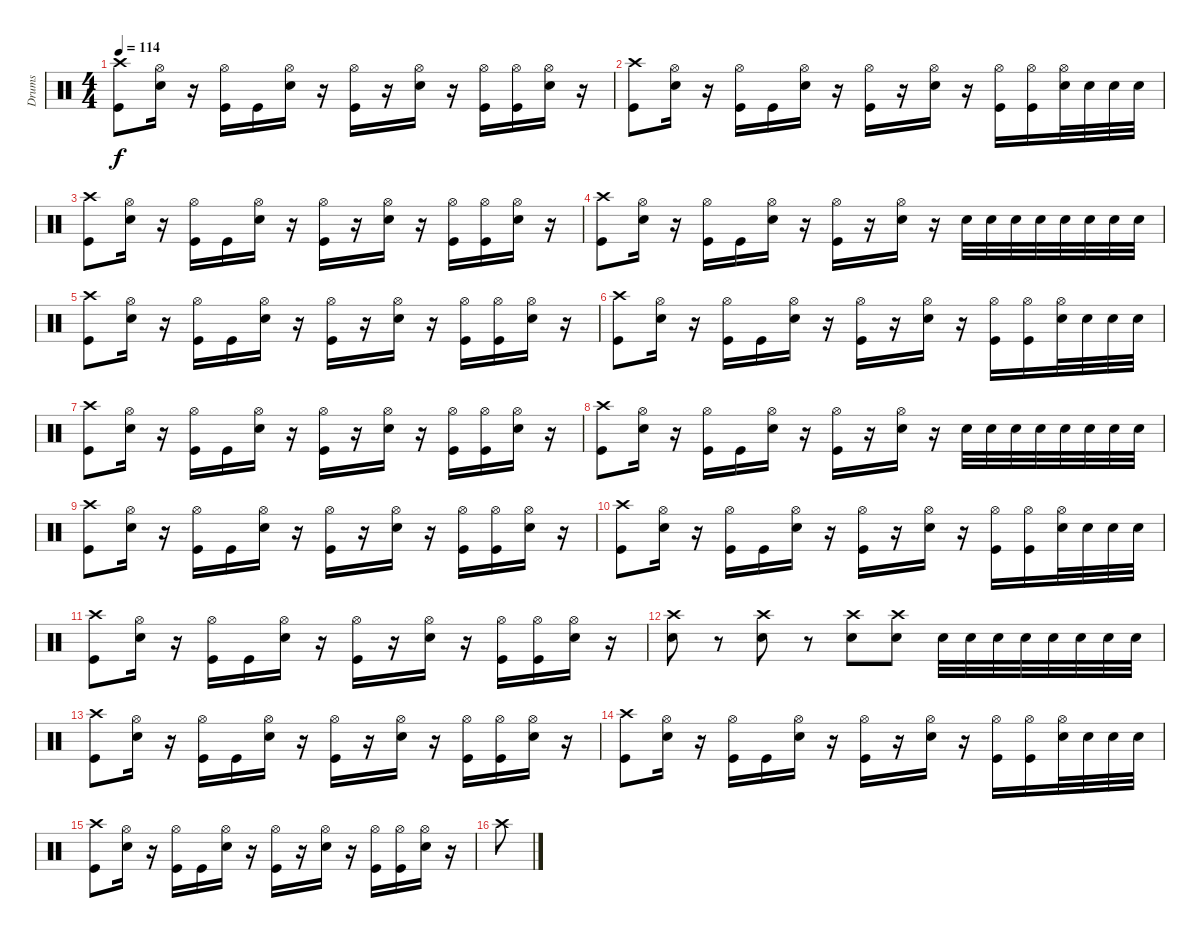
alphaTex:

\track ("Drums" "Drums") {instrument percussion}
\staff {score}
\articulation defaults
\ts (4 4)
\tempo 114
\clef neutral
\ks c
("Crash high (hit)" "Kick (hit)").8{dy f} ("Hi-Hat (open)" "Snare (hit) 2").16 r.16 ("Hi-Hat (open)" "Kick (hit)").16 "Kick (hit)".16 ("Hi-Hat (open)" "Snare (hit) 2").16 r.16 ("Hi-Hat (open)" "Kick (hit)").16 r.16 ("Hi-Hat (open)" "Snare (hit) 2").16 r.16 ("Hi-Hat (open)" "Kick (hit)").16 ("Hi-Hat (open)" "Kick (hit)").16 ("Hi-Hat (open)" "Snare (hit) 2").16 r.16 |
("Crash high (hit)" "Kick (hit)").8 ("Hi-Hat (open)" "Snare (hit) 2").16 r.16 ("Hi-Hat (open)" "Kick (hit)").16 "Kick (hit)".16 ("Hi-Hat (open)" "Snare (hit) 2").16 r.16 ("Hi-Hat (open)" "Kick (hit)").16 r.16 ("Hi-Hat (open)" "Snare (hit) 2").16 r.16 ("Hi-Hat (open)" "Kick (hit)").16 ("Hi-Hat (open)" "Kick (hit)").16 ("Hi-Hat (open)" "Snare (hit) 2").32 "Snare (hit) 2".32 "Snare (hit) 2".32 "Snare (hit) 2".32 |
("Crash high (hit)" "Kick (hit)").8 ("Hi-Hat (open)" "Snare (hit) 2").16 r.16 ("Hi-Hat (open)" "Kick (hit)").16 "Kick (hit)".16 ("Hi-Hat (open)" "Snare (hit) 2").16 r.16 ("Hi-Hat (open)" "Kick (hit)").16 r.16 ("Hi-Hat (open)" "Snare (hit) 2").16 r.16 ("Hi-Hat (open)" "Kick (hit)").16 ("Hi-Hat (open)" "Kick (hit)").16 ("Hi-Hat (open)" "Snare (hit) 2").16 r.16 |
("Crash high (hit)" "Kick (hit)").8 ("Hi-Hat (open)" "Snare (hit) 2").16 r.16 ("Hi-Hat (open)" "Kick (hit)").16 "Kick (hit)".16 ("Hi-Hat (open)" "Snare (hit) 2").16 r.16 ("Hi-Hat (open)" "Kick (hit)").16 r.16 ("Hi-Hat (open)" "Snare (hit) 2").16 r.16 "Snare (hit) 2".32 "Snare (hit) 2".32 "Snare (hit) 2".32 "Snare (hit) 2".32 "Snare (hit) 2".32 "Snare (hit) 2".32 "Snare (hit) 2".32 "Snare (hit) 2".32 |
("Crash high (hit)" "Kick (hit)").8 ("Hi-Hat (open)" "Snare (hit) 2").16 r.16 ("Hi-Hat (open)" "Kick (hit)").16 "Kick (hit)".16 ("Hi-Hat (open)" "Snare (hit) 2").16 r.16 ("Hi-Hat (open)" "Kick (hit)").16 r.16 ("Hi-Hat (open)" "Snare (hit) 2").16 r.16 ("Hi-Hat (open)" "Kick (hit)").16 ("Hi-Hat (open)" "Kick (hit)").16 ("Hi-Hat (open)" "Snare (hit) 2").16 r.16 |
("Crash high (hit)" "Kick (hit)").8 ("Hi-Hat (open)" "Snare (hit) 2").16 r.16 ("Hi-Hat (open)" "Kick (hit)").16 "Kick (hit)".16 ("Hi-Hat (open)" "Snare (hit) 2").16 r.16 ("Hi-Hat (open)" "Kick (hit)").16 r.16 ("Hi-Hat (open)" "Snare (hit) 2").16 r.16 ("Hi-Hat (open)" "Kick (hit)").16 ("Hi-Hat (open)" "Kick (hit)").16 ("Hi-Hat (open)" "Snare (hit) 2").32 "Snare (hit) 2".32 "Snare (hit) 2".32 "Snare (hit) 2".32 |
("Crash high (hit)" "Kick (hit)").8 ("Hi-Hat (open)" "Snare (hit) 2").16 r.16 ("Hi-Hat (open)" "Kick (hit)").16 "Kick (hit)".16 ("Hi-Hat (open)" "Snare (hit) 2").16 r.16 ("Hi-Hat (open)" "Kick (hit)").16 r.16 ("Hi-Hat (open)" "Snare (hit) 2").16 r.16 ("Hi-Hat (open)" "Kick (hit)").16 ("Hi-Hat (open)" "Kick (hit)").16 ("Hi-Hat (open)" "Snare (hit) 2").16 r.16 |
("Crash high (hit)" "Kick (hit)").8 ("Hi-Hat (open)" "Snare (hit) 2").16 r.16 ("Hi-Hat (open)" "Kick (hit)").16 "Kick (hit)".16 ("Hi-Hat (open)" "Snare (hit) 2").16 r.16 ("Hi-Hat (open)" "Kick (hit)").16 r.16 ("Hi-Hat (open)" "Snare (hit) 2").16 r.16 "Snare (hit) 2".32 "Snare (hit) 2".32 "Snare (hit) 2".32 "Snare (hit) 2".32 "Snare (hit) 2".32 "Snare (hit) 2".32 "Snare (hit) 2".32 "Snare (hit) 2".32 |
("Crash high (hit)" "Kick (hit)").8 ("Hi-Hat (open)" "Snare (hit) 2").16 r.16 ("Hi-Hat (open)" "Kick (hit)").16 "Kick (hit)".16 ("Hi-Hat (open)" "Snare (hit) 2").16 r.16 ("Hi-Hat (open)" "Kick (hit)").16 r.16 ("Hi-Hat (open)" "Snare (hit) 2").16 r.16 ("Hi-Hat (open)" "Kick (hit)").16 ("Hi-Hat (open)" "Kick (hit)").16 ("Hi-Hat (open)" "Snare (hit) 2").16 r.16 |
("Crash high (hit)" "Kick (hit)").8 ("Hi-Hat (open)" "Snare (hit) 2").16 r.16 ("Hi-Hat (open)" "Kick (hit)").16 "Kick (hit)".16 ("Hi-Hat (open)" "Snare (hit) 2").16 r.16 ("Hi-Hat (open)" "Kick (hit)").16 r.16 ("Hi-Hat (open)" "Snare (hit) 2").16 r.16 ("Hi-Hat (open)" "Kick (hit)").16 ("Hi-Hat (open)" "Kick (hit)").16 ("Hi-Hat (open)" "Snare (hit) 2").32 "Snare (hit) 2".32 "Snare (hit) 2".32 "Snare (hit) 2".32 |
("Crash high (hit)" "Kick (hit)").8 ("Hi-Hat (open)" "Snare (hit) 2").16 r.16 ("Hi-Hat (open)" "Kick (hit)").16 "Kick (hit)".16 ("Hi-Hat (open)" "Snare (hit) 2").16 r.16 ("Hi-Hat (open)" "Kick (hit)").16 r.16 ("Hi-Hat (open)" "Snare (hit) 2").16 r.16 ("Hi-Hat (open)" "Kick (hit)").16 ("Hi-Hat (open)" "Kick (hit)").16 ("Hi-Hat (open)" "Snare (hit) 2").16 r.16 |
("Crash high (hit)" "Snare (hit) 2").8 r.8 ("Crash high (hit)" "Snare (hit) 2").8 r.8 ("Crash high (hit)" "Snare (hit) 2").8 ("Crash high (hit)" "Snare (hit) 2").8 "Snare (hit) 2".32 "Snare (hit) 2".32 "Snare (hit) 2".32 "Snare (hit) 2".32 "Snare (hit) 2".32 "Snare (hit) 2".32 "Snare (hit) 2".32 "Snare (hit) 2".32 |
("Crash high (hit)" "Kick (hit)").8 ("Hi-Hat (open)" "Snare (hit) 2").16 r.16 ("Hi-Hat (open)" "Kick (hit)").16 "Kick (hit)".16 ("Hi-Hat (open)" "Snare (hit) 2").16 r.16 ("Hi-Hat (open)" "Kick (hit)").16 r.16 ("Hi-Hat (open)" "Snare (hit) 2").16 r.16 ("Hi-Hat (open)" "Kick (hit)").16 ("Hi-Hat (open)" "Kick (hit)").16 ("Hi-Hat (open)" "Snare (hit) 2").16 r.16 |
("Crash high (hit)" "Kick (hit)").8 ("Hi-Hat (open)" "Snare (hit) 2").16 r.16 ("Hi-Hat (open)" "Kick (hit)").16 "Kick (hit)".16 ("Hi-Hat (open)" "Snare (hit) 2").16 r.16 ("Hi-Hat (open)" "Kick (hit)").16 r.16 ("Hi-Hat (open)" "Snare (hit) 2").16 r.16 ("Hi-Hat (open)" "Kick (hit)").16 ("Hi-Hat (open)" "Kick (hit)").16 ("Hi-Hat (open)" "Snare (hit) 2").32 "Snare (hit) 2".32 "Snare (hit) 2".32 "Snare (hit) 2".32 |
("Crash high (hit)" "Kick (hit)").8 ("Hi-Hat (open)" "Snare (hit) 2").16 r.16 ("Hi-Hat (open)" "Kick (hit)").16 "Kick (hit)".16 ("Hi-Hat (open)" "Snare (hit) 2").16 r.16 ("Hi-Hat (open)" "Kick (hit)").16 r.16 ("Hi-Hat (open)" "Snare (hit) 2").16 r.16 ("Hi-Hat (open)" "Kick (hit)").16 ("Hi-Hat (open)" "Kick (hit)").16 ("Hi-Hat (open)" "Snare (hit) 2").16 r.16 |
"Crash high (hit)".8
